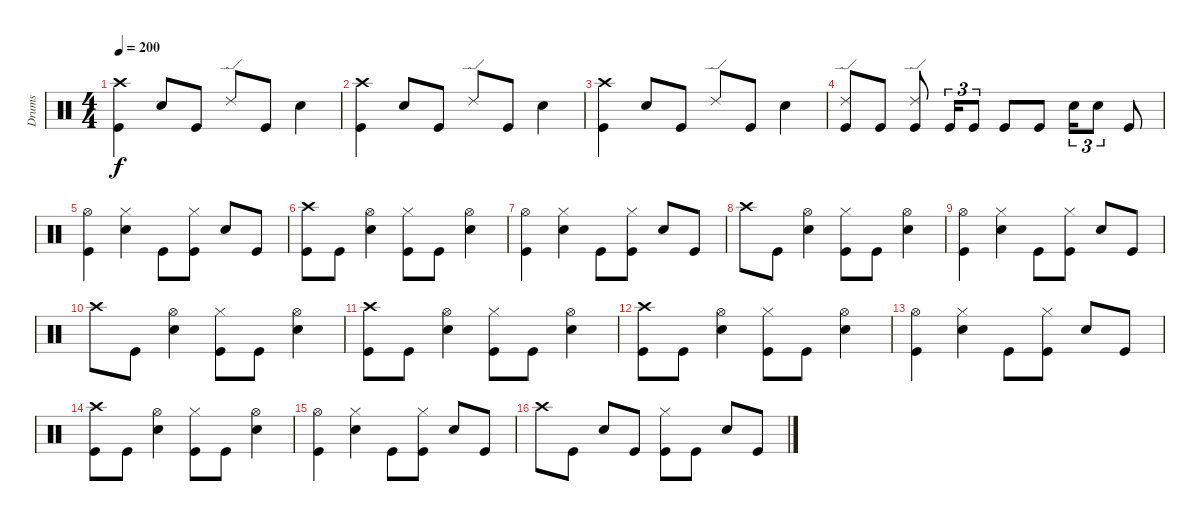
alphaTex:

\track ("Drums" "Drums") {instrument percussion}
\staff {score}
\articulation defaults
\ts (4 4)
\tempo 200
\clef neutral
\ks c
("Crash high (hit)" "Kick (hit)").4{dy f} "Snare (hit) 2".8 "Kick (hit)".8 "Ride (edge) 2".8 "Kick (hit)".8 "Snare (hit) 2".4 |
("Crash high (hit)" "Kick (hit)").4 "Snare (hit) 2".8 "Kick (hit)".8 "Ride (edge) 2".8 "Kick (hit)".8 "Snare (hit) 2".4 |
("Crash high (hit)" "Kick (hit)").4 "Snare (hit) 2".8 "Kick (hit)".8 "Ride (edge) 2".8 "Kick (hit)".8 "Snare (hit) 2".4 |
("Ride (edge) 2" "Kick (hit)").8 "Kick (hit)".8 ("Ride (edge) 2" "Kick (hit)").8 "Kick (hit)".16{tu (3 2)} "Kick (hit)".8{tu (3 2)} "Kick (hit)".8 "Kick (hit)".8 "Snare (hit) 2".16{tu (3 2)} "Snare (hit) 2".8{tu (3 2)} "Kick (hit)".8 |
("Hi-Hat (open)" "Kick (hit)").4 ("Hi-Hat (closed)" "Snare (hit) 2").4 "Kick (hit)".8 ("Hi-Hat (closed)" "Kick (hit)").8 "Snare (hit) 2".8 "Kick (hit)".8 |
("Crash high (hit)" "Kick (hit)").8 "Kick (hit)".8 ("Hi-Hat (open)" "Snare (hit) 2").4 ("Hi-Hat (closed)" "Kick (hit)").8 "Kick (hit)".8 ("Hi-Hat (open)" "Snare (hit) 2").4 |
("Hi-Hat (open)" "Kick (hit)").4 ("Hi-Hat (closed)" "Snare (hit) 2").4 "Kick (hit)".8 ("Hi-Hat (closed)" "Kick (hit)").8 "Snare (hit) 2".8 "Kick (hit)".8 |
"Crash high (hit)".8 "Kick (hit)".8 ("Hi-Hat (open)" "Snare (hit) 2").4 ("Hi-Hat (closed)" "Kick (hit)").8 "Kick (hit)".8 ("Hi-Hat (open)" "Snare (hit) 2").4 |
("Hi-Hat (open)" "Kick (hit)").4 ("Hi-Hat (closed)" "Snare (hit) 2").4 "Kick (hit)".8 ("Hi-Hat (closed)" "Kick (hit)").8 "Snare (hit) 2".8 "Kick (hit)".8 |
"Crash high (hit)".8 "Kick (hit)".8 ("Hi-Hat (open)" "Snare (hit) 2").4 ("Hi-Hat (closed)" "Kick (hit)").8 "Kick (hit)".8 ("Hi-Hat (open)" "Snare (hit) 2").4 |
("Crash high (hit)" "Kick (hit)").8 "Kick (hit)".8 ("Hi-Hat (open)" "Snare (hit) 2").4 ("Hi-Hat (closed)" "Kick (hit)").8 "Kick (hit)".8 ("Hi-Hat (open)" "Snare (hit) 2").4 |
("Crash high (hit)" "Kick (hit)").8 "Kick (hit)".8 ("Hi-Hat (open)" "Snare (hit) 2").4 ("Hi-Hat (closed)" "Kick (hit)").8 "Kick (hit)".8 ("Hi-Hat (open)" "Snare (hit) 2").4 |
("Hi-Hat (open)" "Kick (hit)").4 ("Hi-Hat (closed)" "Snare (hit) 2").4 "Kick (hit)".8 ("Hi-Hat (closed)" "Kick (hit)").8 "Snare (hit) 2".8 "Kick (hit)".8 |
("Crash high (hit)" "Kick (hit)").8 "Kick (hit)".8 ("Hi-Hat (open)" "Snare (hit) 2").4 ("Hi-Hat (closed)" "Kick (hit)").8 "Kick (hit)".8 ("Hi-Hat (open)" "Snare (hit) 2").4 |
("Hi-Hat (open)" "Kick (hit)").4 ("Hi-Hat (closed)" "Snare (hit) 2").4 "Kick (hit)".8 ("Hi-Hat (closed)" "Kick (hit)").8 "Snare (hit) 2".8 "Kick (hit)".8 |
"Crash high (hit)".8 "Kick (hit)".8 "Snare (hit) 2".8 "Kick (hit)".8 ("Hi-Hat (closed)" "Kick (hit)").8 "Kick (hit)".8 "Snare (hit) 2".8 "Kick (hit)".8
